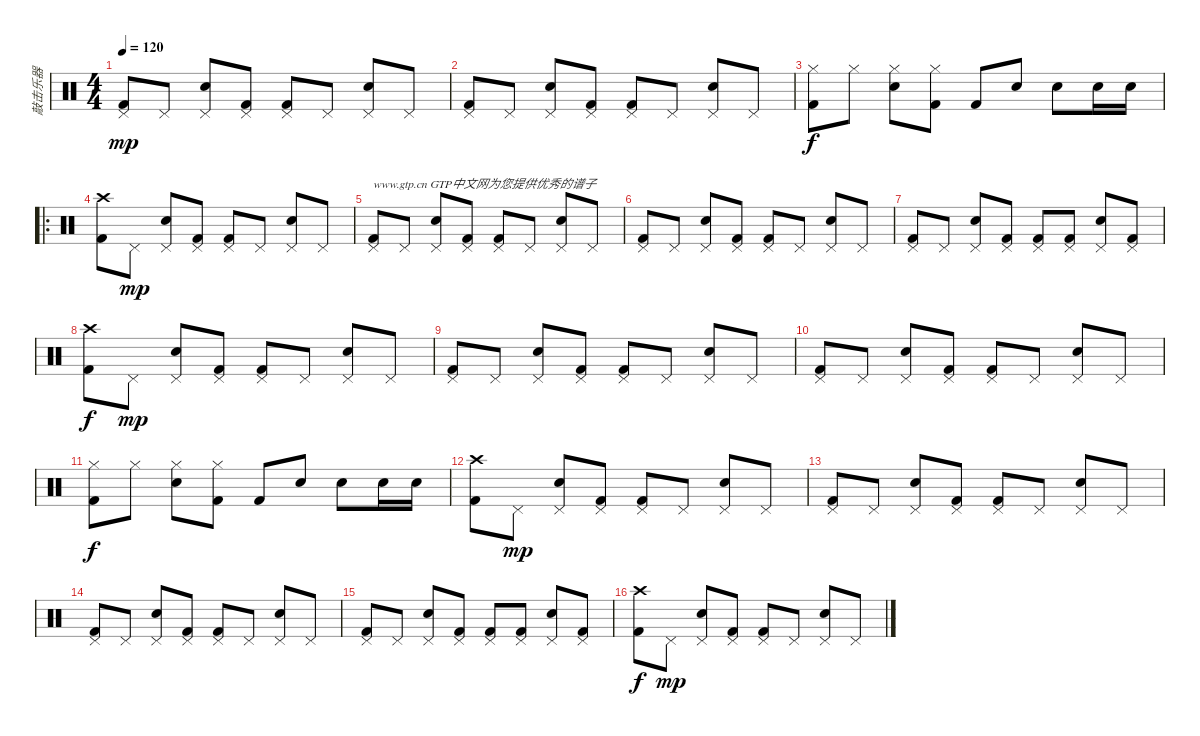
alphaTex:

\track ("敲击乐器" "敲击乐器") {instrument percussion}
\staff {score}
\articulation defaults
\ts (4 4)
\tempo 120
\clef neutral
\ks c
("Pedal Hi-Hat (hit)" "Kick (hit) 2").8{dy mp} "Pedal Hi-Hat (hit)".8 ("Pedal Hi-Hat (hit)" "Electric Snare (hit)").8 ("Pedal Hi-Hat (hit)" "Kick (hit) 2").8 ("Pedal Hi-Hat (hit)" "Kick (hit) 2").8 "Pedal Hi-Hat (hit)".8 ("Pedal Hi-Hat (hit)" "Electric Snare (hit)").8 "Pedal Hi-Hat (hit)".8 |
("Pedal Hi-Hat (hit)" "Kick (hit) 2").8 "Pedal Hi-Hat (hit)".8 ("Pedal Hi-Hat (hit)" "Electric Snare (hit)").8 ("Pedal Hi-Hat (hit)" "Kick (hit) 2").8 ("Pedal Hi-Hat (hit)" "Kick (hit) 2").8 "Pedal Hi-Hat (hit)".8 ("Pedal Hi-Hat (hit)" "Electric Snare (hit)").8 "Pedal Hi-Hat (hit)".8 |
("Hi-Hat (closed)" "Kick (hit) 2").8{dy f} "Hi-Hat (closed)".8 ("Hi-Hat (closed)" "Electric Snare (hit)").8 ("Hi-Hat (closed)" "Kick (hit) 2").8 "Kick (hit) 2".8 "Electric Snare (hit)".8 "Electric Snare (hit)".8 "Electric Snare (hit)".16 "Electric Snare (hit)".16 |
\ro
("Crash high (hit)" "Kick (hit) 2").8 "Pedal Hi-Hat (hit)".8{dy mp} ("Pedal Hi-Hat (hit)" "Electric Snare (hit)").8 ("Pedal Hi-Hat (hit)" "Kick (hit) 2").8 ("Pedal Hi-Hat (hit)" "Kick (hit) 2").8 "Pedal Hi-Hat (hit)".8 ("Pedal Hi-Hat (hit)" "Electric Snare (hit)").8 "Pedal Hi-Hat (hit)".8 |
("Pedal Hi-Hat (hit)" "Kick (hit) 2").8{txt "www.gtp.cn GTP中文网为您提供优秀的谱子"} "Pedal Hi-Hat (hit)".8 ("Pedal Hi-Hat (hit)" "Electric Snare (hit)").8 ("Pedal Hi-Hat (hit)" "Kick (hit) 2").8 ("Pedal Hi-Hat (hit)" "Kick (hit) 2").8 "Pedal Hi-Hat (hit)".8 ("Pedal Hi-Hat (hit)" "Electric Snare (hit)").8 "Pedal Hi-Hat (hit)".8 |
("Pedal Hi-Hat (hit)" "Kick (hit) 2").8 "Pedal Hi-Hat (hit)".8 ("Pedal Hi-Hat (hit)" "Electric Snare (hit)").8 ("Pedal Hi-Hat (hit)" "Kick (hit) 2").8 ("Pedal Hi-Hat (hit)" "Kick (hit) 2").8 "Pedal Hi-Hat (hit)".8 ("Pedal Hi-Hat (hit)" "Electric Snare (hit)").8 "Pedal Hi-Hat (hit)".8 |
("Pedal Hi-Hat (hit)" "Kick (hit) 2").8 "Pedal Hi-Hat (hit)".8 ("Pedal Hi-Hat (hit)" "Electric Snare (hit)").8 ("Pedal Hi-Hat (hit)" "Kick (hit) 2").8 ("Pedal Hi-Hat (hit)" "Kick (hit) 2").8 ("Pedal Hi-Hat (hit)" "Kick (hit) 2").8 ("Pedal Hi-Hat (hit)" "Electric Snare (hit)").8 ("Pedal Hi-Hat (hit)" "Kick (hit) 2").8 |
("Crash high (hit)" "Kick (hit) 2").8{dy f} "Pedal Hi-Hat (hit)".8{dy mp} ("Pedal Hi-Hat (hit)" "Electric Snare (hit)").8 ("Pedal Hi-Hat (hit)" "Kick (hit) 2").8 ("Pedal Hi-Hat (hit)" "Kick (hit) 2").8 "Pedal Hi-Hat (hit)".8 ("Pedal Hi-Hat (hit)" "Electric Snare (hit)").8 "Pedal Hi-Hat (hit)".8 |
("Pedal Hi-Hat (hit)" "Kick (hit) 2").8 "Pedal Hi-Hat (hit)".8 ("Pedal Hi-Hat (hit)" "Electric Snare (hit)").8 ("Pedal Hi-Hat (hit)" "Kick (hit) 2").8 ("Pedal Hi-Hat (hit)" "Kick (hit) 2").8 "Pedal Hi-Hat (hit)".8 ("Pedal Hi-Hat (hit)" "Electric Snare (hit)").8 "Pedal Hi-Hat (hit)".8 |
("Pedal Hi-Hat (hit)" "Kick (hit) 2").8 "Pedal Hi-Hat (hit)".8 ("Pedal Hi-Hat (hit)" "Electric Snare (hit)").8 ("Pedal Hi-Hat (hit)" "Kick (hit) 2").8 ("Pedal Hi-Hat (hit)" "Kick (hit) 2").8 "Pedal Hi-Hat (hit)".8 ("Pedal Hi-Hat (hit)" "Electric Snare (hit)").8 "Pedal Hi-Hat (hit)".8 |
("Hi-Hat (closed)" "Kick (hit) 2").8{dy f} "Hi-Hat (closed)".8 ("Hi-Hat (closed)" "Electric Snare (hit)").8 ("Hi-Hat (closed)" "Kick (hit) 2").8 "Kick (hit) 2".8 "Electric Snare (hit)".8 "Electric Snare (hit)".8 "Electric Snare (hit)".16 "Electric Snare (hit)".16 |
("Crash high (hit)" "Kick (hit) 2").8 "Pedal Hi-Hat (hit)".8{dy mp} ("Pedal Hi-Hat (hit)" "Electric Snare (hit)").8 ("Pedal Hi-Hat (hit)" "Kick (hit) 2").8 ("Pedal Hi-Hat (hit)" "Kick (hit) 2").8 "Pedal Hi-Hat (hit)".8 ("Pedal Hi-Hat (hit)" "Electric Snare (hit)").8 "Pedal Hi-Hat (hit)".8 |
("Pedal Hi-Hat (hit)" "Kick (hit) 2").8 "Pedal Hi-Hat (hit)".8 ("Pedal Hi-Hat (hit)" "Electric Snare (hit)").8 ("Pedal Hi-Hat (hit)" "Kick (hit) 2").8 ("Pedal Hi-Hat (hit)" "Kick (hit) 2").8 "Pedal Hi-Hat (hit)".8 ("Pedal Hi-Hat (hit)" "Electric Snare (hit)").8 "Pedal Hi-Hat (hit)".8 |
("Pedal Hi-Hat (hit)" "Kick (hit) 2").8 "Pedal Hi-Hat (hit)".8 ("Pedal Hi-Hat (hit)" "Electric Snare (hit)").8 ("Pedal Hi-Hat (hit)" "Kick (hit) 2").8 ("Pedal Hi-Hat (hit)" "Kick (hit) 2").8 "Pedal Hi-Hat (hit)".8 ("Pedal Hi-Hat (hit)" "Electric Snare (hit)").8 "Pedal Hi-Hat (hit)".8 |
("Pedal Hi-Hat (hit)" "Kick (hit) 2").8 "Pedal Hi-Hat (hit)".8 ("Pedal Hi-Hat (hit)" "Electric Snare (hit)").8 ("Pedal Hi-Hat (hit)" "Kick (hit) 2").8 ("Pedal Hi-Hat (hit)" "Kick (hit) 2").8 ("Pedal Hi-Hat (hit)" "Kick (hit) 2").8 ("Pedal Hi-Hat (hit)" "Electric Snare (hit)").8 ("Pedal Hi-Hat (hit)" "Kick (hit) 2").8 |
("Crash high (hit)" "Kick (hit) 2").8{dy f} "Pedal Hi-Hat (hit)".8{dy mp} ("Pedal Hi-Hat (hit)" "Electric Snare (hit)").8 ("Pedal Hi-Hat (hit)" "Kick (hit) 2").8 ("Pedal Hi-Hat (hit)" "Kick (hit) 2").8 "Pedal Hi-Hat (hit)".8 ("Pedal Hi-Hat (hit)" "Electric Snare (hit)").8 "Pedal Hi-Hat (hit)".8
